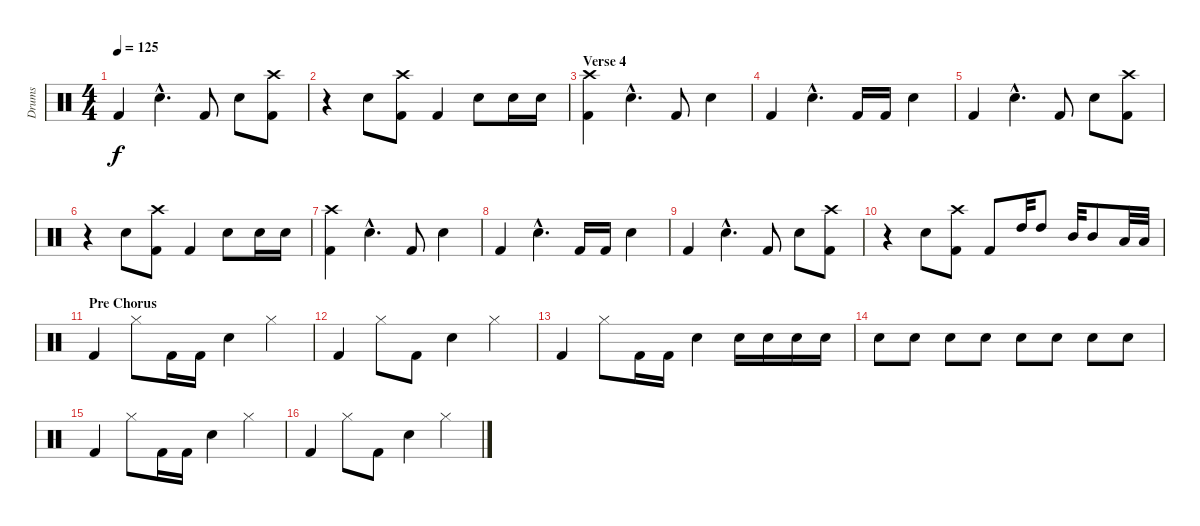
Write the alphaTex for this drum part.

\track ("Drums" "Drums") {instrument percussion}
\staff {score}
\articulation defaults
\ts (4 4)
\tempo 125
\clef neutral
\ks c "Kick (hit) 2".4{dy f} "Snare (hit) 2"{hac}.4{d} "Kick (hit) 2".8 "Snare (hit) 2".8
("Crash high (hit)" "Kick (hit) 2").8 |
r.4 "Snare (hit) 2".8 ("Kick (hit) 2" "Crash high (hit)").8 "Kick (hit) 2".4 "Snare (hit) 2".8 "Snare (hit) 2".16 "Snare (hit) 2".16 |
\section ("" "Verse 4")
("Kick (hit) 2" "Crash high (hit)").4 "Snare (hit) 2"{hac}.4{d} "Kick (hit) 2".8 "Snare (hit) 2".4 |
"Kick (hit) 2".4 "Snare (hit) 2"{hac}.4{d} "Kick (hit) 2".16 "Kick (hit) 2".16 "Snare (hit) 2".4 |
"Kick (hit) 2".4 "Snare (hit) 2"{hac}.4{d} "Kick (hit) 2".8 "Snare (hit) 2".8 ("Crash high (hit)" "Kick (hit) 2").8 |
r.4 "Snare (hit) 2".8 ("Kick (hit) 2" "Crash high (hit)").8 "Kick (hit) 2".4 "Snare (hit) 2".8 "Snare (hit) 2".16 "Snare (hit) 2".16 |
("Kick (hit) 2" "Crash high (hit)").4 "Snare (hit) 2"{hac}.4{d} "Kick (hit) 2".8 "Snare (hit) 2".4 |
"Kick (hit) 2".4 "Snare (hit) 2"{hac}.4{d} "Kick (hit) 2".16 "Kick (hit) 2".16 "Snare (hit) 2".4 |
"Kick (hit) 2".4 "Snare (hit) 2"{hac}.4{d} "Kick (hit) 2".8 "Snare (hit) 2".8 ("Crash high (hit)" "Kick (hit) 2").8 |
r.4 "Snare (hit) 2".8 ("Kick (hit) 2" "Crash high (hit)").8 "Kick (hit) 2".8 "High Tom (hit)".32 "High Tom (hit)".8 "Mid Tom (hit)".32 "Mid Tom (hit)".8 "Low Tom (hit)".32 "Low Tom (hit)".32 |
\section ("" "Pre Chorus")
"Kick (hit) 2".4 "Hi-Hat (closed)".8 "Kick (hit) 2".16 "Kick (hit) 2".16 "Snare (hit) 2".4 "Hi-Hat (closed)".4 |
"Kick (hit) 2".4 "Hi-Hat (closed)".8 "Kick (hit) 2".8 "Snare (hit) 2".4 "Hi-Hat (closed)".4 |
"Kick (hit) 2".4 "Hi-Hat (closed)".8 "Kick (hit) 2".16 "Kick (hit) 2".16 "Snare (hit) 2".4 "Snare (hit) 2".16 "Snare (hit) 2".16 "Snare (hit) 2".16 "Snare (hit) 2".16 |
"Snare (hit) 2".8 "Snare (hit) 2".8 "Snare (hit) 2".8 "Snare (hit) 2".8 "Snare (hit) 2".8 "Snare (hit) 2".8 "Snare (hit) 2".8 "Snare (hit) 2".8 |
"Kick (hit) 2".4 "Hi-Hat (closed)".8 "Kick (hit) 2".16 "Kick (hit) 2".16 "Snare (hit) 2".4 "Hi-Hat (closed)".4 |
"Kick (hit) 2".4 "Hi-Hat (closed)".8 "Kick (hit) 2".8 "Snare (hit) 2".4 "Hi-Hat (closed)".4
